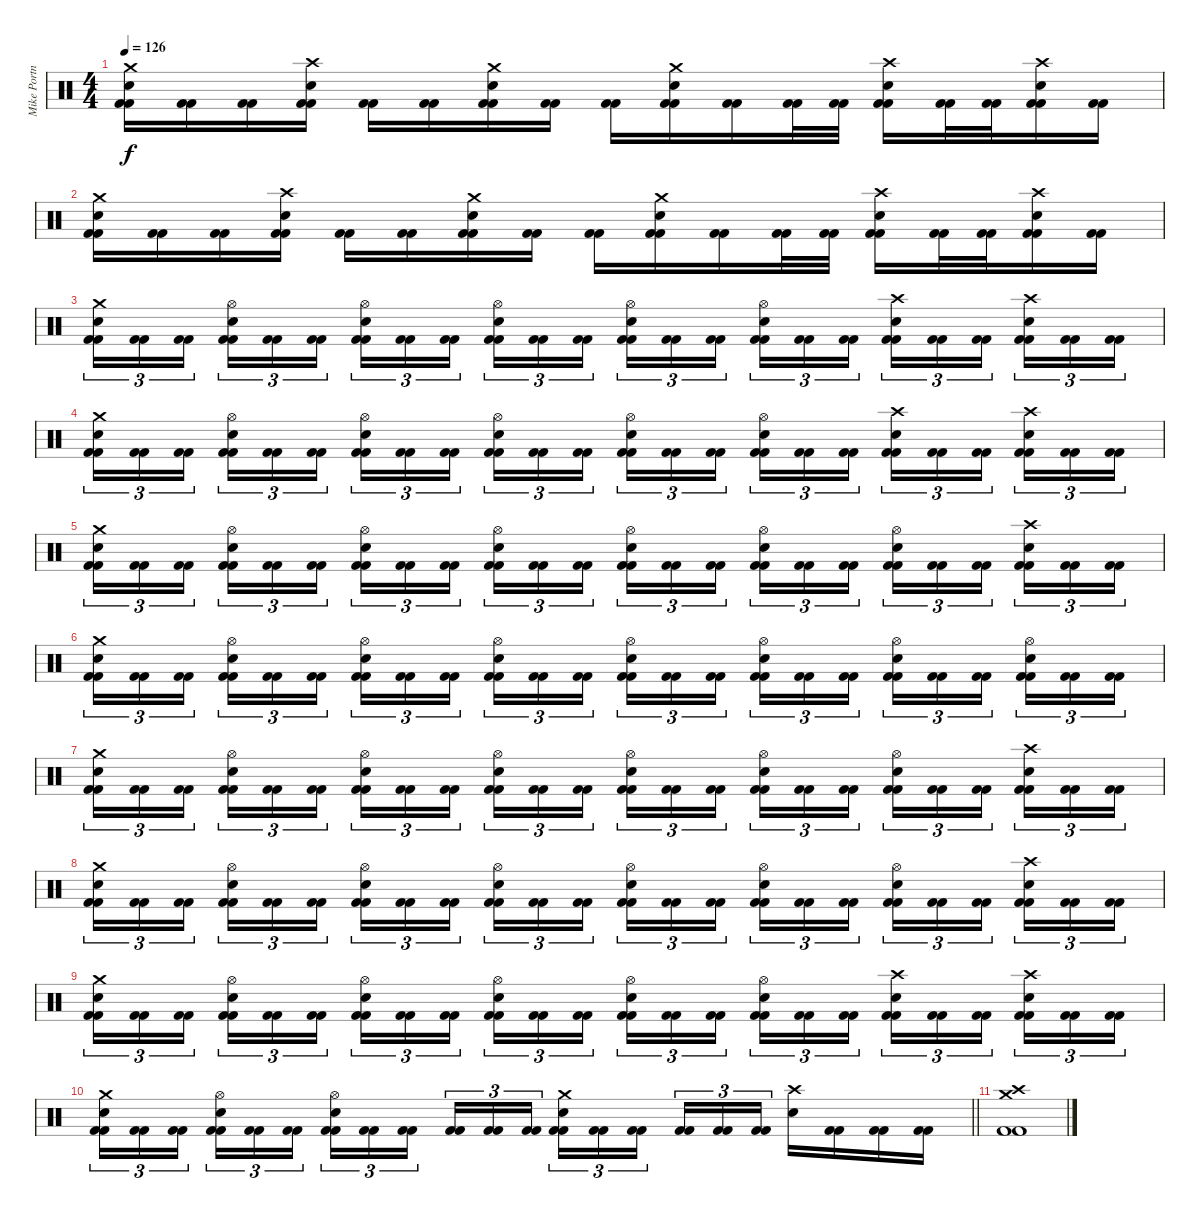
\track ("Mike Portnoy" "Mike Portn") {instrument percussion}
\staff {score}
\articulation defaults
\ts (4 4)
\tempo 126
\clef neutral
\ks c
("Crash medium (hit)" "Electric Snare (hit)" "Kick (hit) 2" "Kick (hit) 2").16{dy f} ("Kick (hit) 2" "Kick (hit) 2").16 ("Kick (hit) 2" "Kick (hit) 2").16 ("Crash high (hit)" "Electric Snare (hit)" "Kick (hit) 2" "Kick (hit) 2").16 ("Kick (hit) 2" "Kick (hit) 2").16 ("Kick (hit) 2" "Kick (hit) 2").16 ("Crash medium (hit)" "Electric Snare (hit)" "Kick (hit) 2" "Kick (hit) 2").16 ("Kick (hit) 2" "Kick (hit) 2").16 ("Kick (hit) 2" "Kick (hit) 2").16 ("Crash medium (hit)" "Electric Snare (hit)" "Kick (hit) 2" "Kick (hit) 2").16 ("Kick (hit) 2" "Kick (hit) 2").16 ("Kick (hit) 2" "Kick (hit) 2").32 ("Kick (hit) 2" "Kick (hit) 2").32 ("Crash high (hit)" "Electric Snare (hit)" "Kick (hit) 2" "Kick (hit) 2").16 ("Kick (hit) 2" "Kick (hit) 2").32 ("Kick (hit) 2" "Kick (hit) 2").32 ("Crash high (hit)" "Electric Snare (hit)" "Kick (hit) 2" "Kick (hit) 2").16 ("Kick (hit) 2" "Kick (hit) 2").16 |
("Crash medium (hit)" "Electric Snare (hit)" "Kick (hit) 2" "Kick (hit) 2").16 ("Kick (hit) 2" "Kick (hit) 2").16 ("Kick (hit) 2" "Kick (hit) 2").16 ("Crash high (hit)" "Electric Snare (hit)" "Kick (hit) 2" "Kick (hit) 2").16 ("Kick (hit) 2" "Kick (hit) 2").16 ("Kick (hit) 2" "Kick (hit) 2").16 ("Crash medium (hit)" "Electric Snare (hit)" "Kick (hit) 2" "Kick (hit) 2").16 ("Kick (hit) 2" "Kick (hit) 2").16 ("Kick (hit) 2" "Kick (hit) 2").16 ("Crash medium (hit)" "Electric Snare (hit)" "Kick (hit) 2" "Kick (hit) 2").16 ("Kick (hit) 2" "Kick (hit) 2").16 ("Kick (hit) 2" "Kick (hit) 2").32 ("Kick (hit) 2" "Kick (hit) 2").32 ("Crash high (hit)" "Electric Snare (hit)" "Kick (hit) 2" "Kick (hit) 2").16 ("Kick (hit) 2" "Kick (hit) 2").32 ("Kick (hit) 2" "Kick (hit) 2").32 ("Crash high (hit)" "Electric Snare (hit)" "Kick (hit) 2" "Kick (hit) 2").16 ("Kick (hit) 2" "Kick (hit) 2").16 |
("Crash medium (hit)" "Electric Snare (hit)" "Kick (hit) 2" "Kick (hit) 2").16{tu (3 2)} ("Kick (hit) 2" "Kick (hit) 2").16{tu (3 2)} ("Kick (hit) 2" "Kick (hit) 2").16{tu (3 2) beam splitsecondary} ("Hi-Hat (open)" "Electric Snare (hit)" "Kick (hit) 2" "Kick (hit) 2").16{tu (3 2)} ("Kick (hit) 2" "Kick (hit) 2").16{tu (3 2)} ("Kick (hit) 2" "Kick (hit) 2").16{tu (3 2)} ("Hi-Hat (open)" "Electric Snare (hit)" "Kick (hit) 2" "Kick (hit) 2").16{tu (3 2)} ("Kick (hit) 2" "Kick (hit) 2").16{tu (3 2)} ("Kick (hit) 2" "Kick (hit) 2").16{tu (3 2) beam splitsecondary} ("Hi-Hat (open)" "Electric Snare (hit)" "Kick (hit) 2" "Kick (hit) 2").16{tu (3 2)} ("Kick (hit) 2" "Kick (hit) 2").16{tu (3 2)} ("Kick (hit) 2" "Kick (hit) 2").16{tu (3 2)} ("Hi-Hat (open)" "Electric Snare (hit)" "Kick (hit) 2" "Kick (hit) 2").16{tu (3 2)} ("Kick (hit) 2" "Kick (hit) 2").16{tu (3 2)} ("Kick (hit) 2" "Kick (hit) 2").16{tu (3 2) beam splitsecondary} ("Hi-Hat (open)" "Electric Snare (hit)" "Kick (hit) 2" "Kick (hit) 2").16{tu (3 2)} ("Kick (hit) 2" "Kick (hit) 2").16{tu (3 2)} ("Kick (hit) 2" "Kick (hit) 2").16{tu (3 2)} ("Crash high (hit)" "Electric Snare (hit)" "Kick (hit) 2" "Kick (hit) 2").16{tu (3 2)} ("Kick (hit) 2" "Kick (hit) 2").16{tu (3 2)} ("Kick (hit) 2" "Kick (hit) 2").16{tu (3 2) beam splitsecondary} ("Crash high (hit)" "Electric Snare (hit)" "Kick (hit) 2" "Kick (hit) 2").16{tu (3 2)} ("Kick (hit) 2" "Kick (hit) 2").16{tu (3 2)} ("Kick (hit) 2" "Kick (hit) 2").16{tu (3 2)} |
("Crash medium (hit)" "Electric Snare (hit)" "Kick (hit) 2" "Kick (hit) 2").16{tu (3 2)} ("Kick (hit) 2" "Kick (hit) 2").16{tu (3 2)} ("Kick (hit) 2" "Kick (hit) 2").16{tu (3 2) beam splitsecondary} ("Hi-Hat (open)" "Electric Snare (hit)" "Kick (hit) 2" "Kick (hit) 2").16{tu (3 2)} ("Kick (hit) 2" "Kick (hit) 2").16{tu (3 2)} ("Kick (hit) 2" "Kick (hit) 2").16{tu (3 2)} ("Hi-Hat (open)" "Electric Snare (hit)" "Kick (hit) 2" "Kick (hit) 2").16{tu (3 2)} ("Kick (hit) 2" "Kick (hit) 2").16{tu (3 2)} ("Kick (hit) 2" "Kick (hit) 2").16{tu (3 2) beam splitsecondary} ("Hi-Hat (open)" "Electric Snare (hit)" "Kick (hit) 2" "Kick (hit) 2").16{tu (3 2)} ("Kick (hit) 2" "Kick (hit) 2").16{tu (3 2)} ("Kick (hit) 2" "Kick (hit) 2").16{tu (3 2)} ("Hi-Hat (open)" "Electric Snare (hit)" "Kick (hit) 2" "Kick (hit) 2").16{tu (3 2)} ("Kick (hit) 2" "Kick (hit) 2").16{tu (3 2)} ("Kick (hit) 2" "Kick (hit) 2").16{tu (3 2) beam splitsecondary} ("Hi-Hat (open)" "Electric Snare (hit)" "Kick (hit) 2" "Kick (hit) 2").16{tu (3 2)} ("Kick (hit) 2" "Kick (hit) 2").16{tu (3 2)} ("Kick (hit) 2" "Kick (hit) 2").16{tu (3 2)} ("Crash high (hit)" "Electric Snare (hit)" "Kick (hit) 2" "Kick (hit) 2").16{tu (3 2)} ("Kick (hit) 2" "Kick (hit) 2").16{tu (3 2)} ("Kick (hit) 2" "Kick (hit) 2").16{tu (3 2) beam splitsecondary} ("Crash high (hit)" "Electric Snare (hit)" "Kick (hit) 2" "Kick (hit) 2").16{tu (3 2)} ("Kick (hit) 2" "Kick (hit) 2").16{tu (3 2)} ("Kick (hit) 2" "Kick (hit) 2").16{tu (3 2)} |
("Crash medium (hit)" "Electric Snare (hit)" "Kick (hit) 2" "Kick (hit) 2").16{tu (3 2)} ("Kick (hit) 2" "Kick (hit) 2").16{tu (3 2)} ("Kick (hit) 2" "Kick (hit) 2").16{tu (3 2) beam splitsecondary} ("Hi-Hat (open)" "Electric Snare (hit)" "Kick (hit) 2" "Kick (hit) 2").16{tu (3 2)} ("Kick (hit) 2" "Kick (hit) 2").16{tu (3 2)} ("Kick (hit) 2" "Kick (hit) 2").16{tu (3 2)} ("Hi-Hat (open)" "Electric Snare (hit)" "Kick (hit) 2" "Kick (hit) 2").16{tu (3 2)} ("Kick (hit) 2" "Kick (hit) 2").16{tu (3 2)} ("Kick (hit) 2" "Kick (hit) 2").16{tu (3 2) beam splitsecondary} ("Hi-Hat (open)" "Electric Snare (hit)" "Kick (hit) 2" "Kick (hit) 2").16{tu (3 2)} ("Kick (hit) 2" "Kick (hit) 2").16{tu (3 2)} ("Kick (hit) 2" "Kick (hit) 2").16{tu (3 2)} ("Hi-Hat (open)" "Electric Snare (hit)" "Kick (hit) 2" "Kick (hit) 2").16{tu (3 2)} ("Kick (hit) 2" "Kick (hit) 2").16{tu (3 2)} ("Kick (hit) 2" "Kick (hit) 2").16{tu (3 2) beam splitsecondary} ("Hi-Hat (open)" "Electric Snare (hit)" "Kick (hit) 2" "Kick (hit) 2").16{tu (3 2)} ("Kick (hit) 2" "Kick (hit) 2").16{tu (3 2)} ("Kick (hit) 2" "Kick (hit) 2").16{tu (3 2)} ("Hi-Hat (open)" "Electric Snare (hit)" "Kick (hit) 2" "Kick (hit) 2").16{tu (3 2)} ("Kick (hit) 2" "Kick (hit) 2").16{tu (3 2)} ("Kick (hit) 2" "Kick (hit) 2").16{tu (3 2) beam splitsecondary} ("Crash high (hit)" "Electric Snare (hit)" "Kick (hit) 2" "Kick (hit) 2").16{tu (3 2)} ("Kick (hit) 2" "Kick (hit) 2").16{tu (3 2)} ("Kick (hit) 2" "Kick (hit) 2").16{tu (3 2)} |
("Crash medium (hit)" "Electric Snare (hit)" "Kick (hit) 2" "Kick (hit) 2").16{tu (3 2)} ("Kick (hit) 2" "Kick (hit) 2").16{tu (3 2)} ("Kick (hit) 2" "Kick (hit) 2").16{tu (3 2) beam splitsecondary} ("Hi-Hat (open)" "Electric Snare (hit)" "Kick (hit) 2" "Kick (hit) 2").16{tu (3 2)} ("Kick (hit) 2" "Kick (hit) 2").16{tu (3 2)} ("Kick (hit) 2" "Kick (hit) 2").16{tu (3 2)} ("Hi-Hat (open)" "Electric Snare (hit)" "Kick (hit) 2" "Kick (hit) 2").16{tu (3 2)} ("Kick (hit) 2" "Kick (hit) 2").16{tu (3 2)} ("Kick (hit) 2" "Kick (hit) 2").16{tu (3 2) beam splitsecondary} ("Hi-Hat (open)" "Electric Snare (hit)" "Kick (hit) 2" "Kick (hit) 2").16{tu (3 2)} ("Kick (hit) 2" "Kick (hit) 2").16{tu (3 2)} ("Kick (hit) 2" "Kick (hit) 2").16{tu (3 2)} ("Hi-Hat (open)" "Electric Snare (hit)" "Kick (hit) 2" "Kick (hit) 2").16{tu (3 2)} ("Kick (hit) 2" "Kick (hit) 2").16{tu (3 2)} ("Kick (hit) 2" "Kick (hit) 2").16{tu (3 2) beam splitsecondary} ("Hi-Hat (open)" "Electric Snare (hit)" "Kick (hit) 2" "Kick (hit) 2").16{tu (3 2)} ("Kick (hit) 2" "Kick (hit) 2").16{tu (3 2)} ("Kick (hit) 2" "Kick (hit) 2").16{tu (3 2)} ("Hi-Hat (open)" "Electric Snare (hit)" "Kick (hit) 2" "Kick (hit) 2").16{tu (3 2)} ("Kick (hit) 2" "Kick (hit) 2").16{tu (3 2)} ("Kick (hit) 2" "Kick (hit) 2").16{tu (3 2) beam splitsecondary} ("Hi-Hat (open)" "Electric Snare (hit)" "Kick (hit) 2" "Kick (hit) 2").16{tu (3 2)} ("Kick (hit) 2" "Kick (hit) 2").16{tu (3 2)} ("Kick (hit) 2" "Kick (hit) 2").16{tu (3 2)} |
("Crash medium (hit)" "Electric Snare (hit)" "Kick (hit) 2" "Kick (hit) 2").16{tu (3 2)} ("Kick (hit) 2" "Kick (hit) 2").16{tu (3 2)} ("Kick (hit) 2" "Kick (hit) 2").16{tu (3 2) beam splitsecondary} ("Hi-Hat (open)" "Electric Snare (hit)" "Kick (hit) 2" "Kick (hit) 2").16{tu (3 2)} ("Kick (hit) 2" "Kick (hit) 2").16{tu (3 2)} ("Kick (hit) 2" "Kick (hit) 2").16{tu (3 2)} ("Hi-Hat (open)" "Electric Snare (hit)" "Kick (hit) 2" "Kick (hit) 2").16{tu (3 2)} ("Kick (hit) 2" "Kick (hit) 2").16{tu (3 2)} ("Kick (hit) 2" "Kick (hit) 2").16{tu (3 2) beam splitsecondary} ("Hi-Hat (open)" "Electric Snare (hit)" "Kick (hit) 2" "Kick (hit) 2").16{tu (3 2)} ("Kick (hit) 2" "Kick (hit) 2").16{tu (3 2)} ("Kick (hit) 2" "Kick (hit) 2").16{tu (3 2)} ("Hi-Hat (open)" "Electric Snare (hit)" "Kick (hit) 2" "Kick (hit) 2").16{tu (3 2)} ("Kick (hit) 2" "Kick (hit) 2").16{tu (3 2)} ("Kick (hit) 2" "Kick (hit) 2").16{tu (3 2) beam splitsecondary} ("Hi-Hat (open)" "Electric Snare (hit)" "Kick (hit) 2" "Kick (hit) 2").16{tu (3 2)} ("Kick (hit) 2" "Kick (hit) 2").16{tu (3 2)} ("Kick (hit) 2" "Kick (hit) 2").16{tu (3 2)} ("Hi-Hat (open)" "Electric Snare (hit)" "Kick (hit) 2" "Kick (hit) 2").16{tu (3 2)} ("Kick (hit) 2" "Kick (hit) 2").16{tu (3 2)} ("Kick (hit) 2" "Kick (hit) 2").16{tu (3 2) beam splitsecondary} ("Crash high (hit)" "Electric Snare (hit)" "Kick (hit) 2" "Kick (hit) 2").16{tu (3 2)} ("Kick (hit) 2" "Kick (hit) 2").16{tu (3 2)} ("Kick (hit) 2" "Kick (hit) 2").16{tu (3 2)} |
("Crash medium (hit)" "Electric Snare (hit)" "Kick (hit) 2" "Kick (hit) 2").16{tu (3 2)} ("Kick (hit) 2" "Kick (hit) 2").16{tu (3 2)} ("Kick (hit) 2" "Kick (hit) 2").16{tu (3 2) beam splitsecondary} ("Hi-Hat (open)" "Electric Snare (hit)" "Kick (hit) 2" "Kick (hit) 2").16{tu (3 2)} ("Kick (hit) 2" "Kick (hit) 2").16{tu (3 2)} ("Kick (hit) 2" "Kick (hit) 2").16{tu (3 2)} ("Hi-Hat (open)" "Electric Snare (hit)" "Kick (hit) 2" "Kick (hit) 2").16{tu (3 2)} ("Kick (hit) 2" "Kick (hit) 2").16{tu (3 2)} ("Kick (hit) 2" "Kick (hit) 2").16{tu (3 2) beam splitsecondary} ("Hi-Hat (open)" "Electric Snare (hit)" "Kick (hit) 2" "Kick (hit) 2").16{tu (3 2)} ("Kick (hit) 2" "Kick (hit) 2").16{tu (3 2)} ("Kick (hit) 2" "Kick (hit) 2").16{tu (3 2)} ("Hi-Hat (open)" "Electric Snare (hit)" "Kick (hit) 2" "Kick (hit) 2").16{tu (3 2)} ("Kick (hit) 2" "Kick (hit) 2").16{tu (3 2)} ("Kick (hit) 2" "Kick (hit) 2").16{tu (3 2) beam splitsecondary} ("Hi-Hat (open)" "Electric Snare (hit)" "Kick (hit) 2" "Kick (hit) 2").16{tu (3 2)} ("Kick (hit) 2" "Kick (hit) 2").16{tu (3 2)} ("Kick (hit) 2" "Kick (hit) 2").16{tu (3 2)} ("Hi-Hat (open)" "Electric Snare (hit)" "Kick (hit) 2" "Kick (hit) 2").16{tu (3 2)} ("Kick (hit) 2" "Kick (hit) 2").16{tu (3 2)} ("Kick (hit) 2" "Kick (hit) 2").16{tu (3 2) beam splitsecondary} ("Crash high (hit)" "Electric Snare (hit)" "Kick (hit) 2" "Kick (hit) 2").16{tu (3 2)} ("Kick (hit) 2" "Kick (hit) 2").16{tu (3 2)} ("Kick (hit) 2" "Kick (hit) 2").16{tu (3 2)} |
("Crash medium (hit)" "Electric Snare (hit)" "Kick (hit) 2" "Kick (hit) 2").16{tu (3 2)} ("Kick (hit) 2" "Kick (hit) 2").16{tu (3 2)} ("Kick (hit) 2" "Kick (hit) 2").16{tu (3 2) beam splitsecondary} ("Hi-Hat (open)" "Electric Snare (hit)" "Kick (hit) 2" "Kick (hit) 2").16{tu (3 2)} ("Kick (hit) 2" "Kick (hit) 2").16{tu (3 2)} ("Kick (hit) 2" "Kick (hit) 2").16{tu (3 2)} ("Hi-Hat (open)" "Electric Snare (hit)" "Kick (hit) 2" "Kick (hit) 2").16{tu (3 2)} ("Kick (hit) 2" "Kick (hit) 2").16{tu (3 2)} ("Kick (hit) 2" "Kick (hit) 2").16{tu (3 2) beam splitsecondary} ("Hi-Hat (open)" "Electric Snare (hit)" "Kick (hit) 2" "Kick (hit) 2").16{tu (3 2)} ("Kick (hit) 2" "Kick (hit) 2").16{tu (3 2)} ("Kick (hit) 2" "Kick (hit) 2").16{tu (3 2)} ("Hi-Hat (open)" "Electric Snare (hit)" "Kick (hit) 2" "Kick (hit) 2").16{tu (3 2)} ("Kick (hit) 2" "Kick (hit) 2").16{tu (3 2)} ("Kick (hit) 2" "Kick (hit) 2").16{tu (3 2) beam splitsecondary} ("Hi-Hat (open)" "Electric Snare (hit)" "Kick (hit) 2" "Kick (hit) 2").16{tu (3 2)} ("Kick (hit) 2" "Kick (hit) 2").16{tu (3 2)} ("Kick (hit) 2" "Kick (hit) 2").16{tu (3 2)} ("Crash high (hit)" "Electric Snare (hit)" "Kick (hit) 2" "Kick (hit) 2").16{tu (3 2)} ("Kick (hit) 2" "Kick (hit) 2").16{tu (3 2)} ("Kick (hit) 2" "Kick (hit) 2").16{tu (3 2) beam splitsecondary} ("Crash high (hit)" "Electric Snare (hit)" "Kick (hit) 2" "Kick (hit) 2").16{tu (3 2)} ("Kick (hit) 2" "Kick (hit) 2").16{tu (3 2)} ("Kick (hit) 2" "Kick (hit) 2").16{tu (3 2)} |
\barLineRight lightlight
("Crash medium (hit)" "Electric Snare (hit)" "Kick (hit) 2" "Kick (hit) 2").16{tu (3 2)} ("Kick (hit) 2" "Kick (hit) 2").16{tu (3 2)} ("Kick (hit) 2" "Kick (hit) 2").16{tu (3 2) beam splitsecondary} ("Hi-Hat (open)" "Electric Snare (hit)" "Kick (hit) 2" "Kick (hit) 2").16{tu (3 2)} ("Kick (hit) 2" "Kick (hit) 2").16{tu (3 2)} ("Kick (hit) 2" "Kick (hit) 2").16{tu (3 2)} ("Hi-Hat (open)" "Electric Snare (hit)" "Kick (hit) 2" "Kick (hit) 2").16{tu (3 2)} ("Kick (hit) 2" "Kick (hit) 2").16{tu (3 2)} ("Kick (hit) 2" "Kick (hit) 2").16{tu (3 2) beam splitsecondary} ("Kick (hit) 2" "Kick (hit) 2").16{tu (3 2)} ("Kick (hit) 2" "Kick (hit) 2").16{tu (3 2)} ("Kick (hit) 2" "Kick (hit) 2").16{tu (3 2)} ("Crash medium (hit)" "Electric Snare (hit)" "Kick (hit) 2" "Kick (hit) 2").16{tu (3 2)} ("Kick (hit) 2" "Kick (hit) 2").16{tu (3 2)} ("Kick (hit) 2" "Kick (hit) 2").16{tu (3 2) beam splitsecondary} ("Kick (hit) 2" "Kick (hit) 2").16{tu (3 2)} ("Kick (hit) 2" "Kick (hit) 2").16{tu (3 2)} ("Kick (hit) 2" "Kick (hit) 2").16{tu (3 2)} ("Crash high (hit)" "Electric Snare (hit)").16 ("Kick (hit) 2" "Kick (hit) 2").16 ("Kick (hit) 2" "Kick (hit) 2").16 ("Kick (hit) 2" "Kick (hit) 2").16 |
("Crash medium (hit)" "Crash high (hit)" "Kick (hit) 2" "Kick (hit) 2").1
